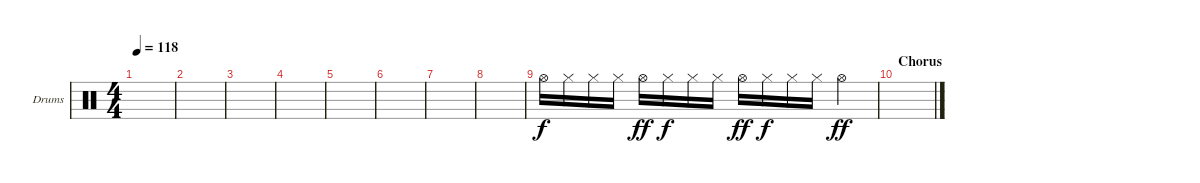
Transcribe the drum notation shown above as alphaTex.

\defaultSystemsLayout 4
\bracketExtendMode groupsimilarinstruments
\firstSystemTrackNameOrientation horizontal
\otherSystemsTrackNameOrientation horizontal
\track ("Drumkit" "Drums") {instrument percussion}
\staff {score}
\articulation defaults
\ts (4 4)
\tempo 118
\clef neutral
\scale
0.333333
\ks c
|
\scale
0.333333 |
\scale
0.333333 |
\scale
0.333333 |
\scale
0.333333 |
\scale
0.333333 |
\scale
0.333333 |
\scale
0.333333 |
\scale
0.333333 "Hi-Hat (open)".16 "Hi-Hat (closed)".16{dy f} "Hi-Hat (closed)".16 "Hi-Hat (closed)".16 "Hi-Hat (open)".16{dy ff} "Hi-Hat (closed)".16{dy f} "Hi-Hat (closed)".16 "Hi-Hat (closed)".16 "Hi-Hat (open)".16{dy ff} "Hi-Hat (closed)".16{dy f} "Hi-Hat (closed)".16 "Hi-Hat (closed)".16 "Hi-Hat (open)".4{dy ff} |
\section ("" "Chorus")
\scale
0.333333 |
\scale
0.333333 |
\scale
0.333333 |
\scale
0.333333 |
\scale
0.333333 |
\scale
0.333333 |
\scale
0.333333
